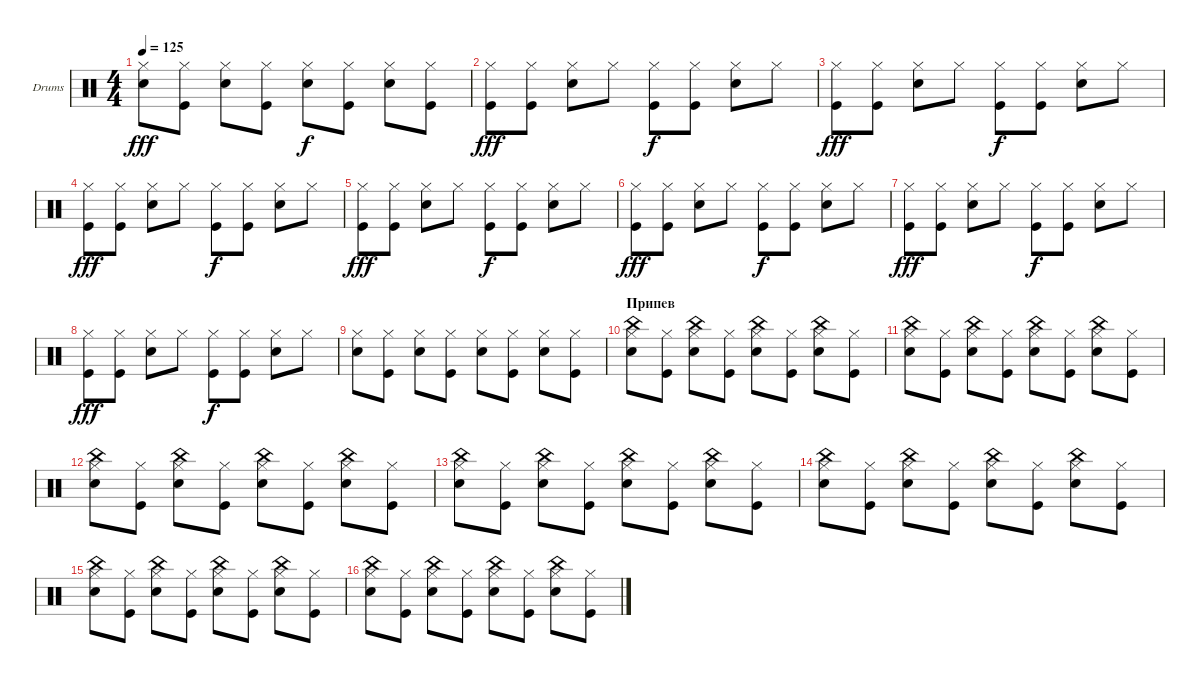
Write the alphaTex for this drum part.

\defaultSystemsLayout 4
\bracketExtendMode groupsimilarinstruments
\firstSystemTrackNameOrientation horizontal
\otherSystemsTrackNameOrientation horizontal
\track ("Drumkit" "Drums") {instrument percussion}
\staff {score}
\articulation defaults
\ts (4 4)
\tempo 125
\clef neutral
\ks c
("Hi-Hat (closed)" "Snare (hit) 2").8{dy fff} ("Hi-Hat (closed)" "Kick (hit)").8 ("Hi-Hat (closed)" "Snare (hit) 2").8 ("Hi-Hat (closed)" "Kick (hit)").8 ("Hi-Hat (closed)" "Snare (hit) 2").8{dy f} ("Hi-Hat (closed)" "Kick (hit)").8 ("Hi-Hat (closed)" "Snare (hit) 2").8 ("Hi-Hat (closed)" "Kick (hit)").8 |
("Hi-Hat (closed)" "Kick (hit)").8{dy fff} ("Hi-Hat (closed)" "Kick (hit)").8 ("Hi-Hat (closed)" "Snare (hit) 2").8 "Hi-Hat (closed)".8 ("Hi-Hat (closed)" "Kick (hit)").8{dy f} ("Hi-Hat (closed)" "Kick (hit)").8 ("Hi-Hat (closed)" "Snare (hit) 2").8 "Hi-Hat (closed)".8 |
("Hi-Hat (closed)" "Kick (hit)").8{dy fff} ("Hi-Hat (closed)" "Kick (hit)").8 ("Hi-Hat (closed)" "Snare (hit) 2").8 "Hi-Hat (closed)".8 ("Hi-Hat (closed)" "Kick (hit)").8{dy f} ("Hi-Hat (closed)" "Kick (hit)").8 ("Hi-Hat (closed)" "Snare (hit) 2").8 "Hi-Hat (closed)".8 |
("Hi-Hat (closed)" "Kick (hit)").8{dy fff} ("Hi-Hat (closed)" "Kick (hit)").8 ("Hi-Hat (closed)" "Snare (hit) 2").8 "Hi-Hat (closed)".8 ("Hi-Hat (closed)" "Kick (hit)").8{dy f} ("Hi-Hat (closed)" "Kick (hit)").8 ("Hi-Hat (closed)" "Snare (hit) 2").8 "Hi-Hat (closed)".8 |
("Hi-Hat (closed)" "Kick (hit)").8{dy fff} ("Hi-Hat (closed)" "Kick (hit)").8 ("Hi-Hat (closed)" "Snare (hit) 2").8 "Hi-Hat (closed)".8 ("Hi-Hat (closed)" "Kick (hit)").8{dy f} ("Hi-Hat (closed)" "Kick (hit)").8 ("Hi-Hat (closed)" "Snare (hit) 2").8 "Hi-Hat (closed)".8 |
("Hi-Hat (closed)" "Kick (hit)").8{dy fff} ("Hi-Hat (closed)" "Kick (hit)").8 ("Hi-Hat (closed)" "Snare (hit) 2").8 "Hi-Hat (closed)".8 ("Hi-Hat (closed)" "Kick (hit)").8{dy f} ("Hi-Hat (closed)" "Kick (hit)").8 ("Hi-Hat (closed)" "Snare (hit) 2").8 "Hi-Hat (closed)".8 |
("Hi-Hat (closed)" "Kick (hit)").8{dy fff} ("Hi-Hat (closed)" "Kick (hit)").8 ("Hi-Hat (closed)" "Snare (hit) 2").8 "Hi-Hat (closed)".8 ("Hi-Hat (closed)" "Kick (hit)").8{dy f} ("Hi-Hat (closed)" "Kick (hit)").8 ("Hi-Hat (closed)" "Snare (hit) 2").8 "Hi-Hat (closed)".8 |
("Hi-Hat (closed)" "Kick (hit)").8{dy fff} ("Hi-Hat (closed)" "Kick (hit)").8 ("Hi-Hat (closed)" "Snare (hit) 2").8 "Hi-Hat (closed)".8 ("Hi-Hat (closed)" "Kick (hit)").8{dy f} ("Hi-Hat (closed)" "Kick (hit)").8 ("Hi-Hat (closed)" "Snare (hit) 2").8 "Hi-Hat (closed)".8 |
("Snare (hit) 2" "Hi-Hat (closed)").8 ("Kick (hit)" "Hi-Hat (closed)").8 ("Snare (hit) 2" "Hi-Hat (closed)").8 ("Kick (hit)" "Hi-Hat (closed)").8 ("Snare (hit) 2" "Hi-Hat (closed)").8 ("Kick (hit)" "Hi-Hat (closed)").8 ("Snare (hit) 2" "Hi-Hat (closed)").8 ("Kick (hit)" "Hi-Hat (closed)").8 |
\section ("" "Припев")
("Snare (hit) 2" "Hi-Hat (closed)" "China (hit)").8 ("Kick (hit)" "Hi-Hat (closed)").8 ("Snare (hit) 2" "Hi-Hat (closed)" "China (hit)").8 ("Kick (hit)" "Hi-Hat (closed)").8 ("Snare (hit) 2" "Hi-Hat (closed)" "China (hit)").8 ("Kick (hit)" "Hi-Hat (closed)").8 ("Snare (hit) 2" "Hi-Hat (closed)" "China (hit)").8 ("Kick (hit)" "Hi-Hat (closed)").8 |
("Snare (hit) 2" "Hi-Hat (closed)" "China (hit)").8 ("Kick (hit)" "Hi-Hat (closed)").8 ("Snare (hit) 2" "Hi-Hat (closed)" "China (hit)").8 ("Kick (hit)" "Hi-Hat (closed)").8 ("Snare (hit) 2" "Hi-Hat (closed)" "China (hit)").8 ("Kick (hit)" "Hi-Hat (closed)").8 ("Snare (hit) 2" "Hi-Hat (closed)" "China (hit)").8 ("Kick (hit)" "Hi-Hat (closed)").8 |
("Snare (hit) 2" "Hi-Hat (closed)" "China (hit)").8 ("Kick (hit)" "Hi-Hat (closed)").8 ("Snare (hit) 2" "Hi-Hat (closed)" "China (hit)").8 ("Kick (hit)" "Hi-Hat (closed)").8 ("Snare (hit) 2" "Hi-Hat (closed)" "China (hit)").8 ("Kick (hit)" "Hi-Hat (closed)").8 ("Snare (hit) 2" "Hi-Hat (closed)" "China (hit)").8 ("Kick (hit)" "Hi-Hat (closed)").8 |
("Snare (hit) 2" "Hi-Hat (closed)" "China (hit)").8 ("Kick (hit)" "Hi-Hat (closed)").8 ("Snare (hit) 2" "Hi-Hat (closed)" "China (hit)").8 ("Kick (hit)" "Hi-Hat (closed)").8 ("Snare (hit) 2" "Hi-Hat (closed)" "China (hit)").8 ("Kick (hit)" "Hi-Hat (closed)").8 ("Snare (hit) 2" "Hi-Hat (closed)" "China (hit)").8 ("Kick (hit)" "Hi-Hat (closed)").8 |
("Snare (hit) 2" "Hi-Hat (closed)" "China (hit)").8 ("Kick (hit)" "Hi-Hat (closed)").8 ("Snare (hit) 2" "Hi-Hat (closed)" "China (hit)").8 ("Kick (hit)" "Hi-Hat (closed)").8 ("Snare (hit) 2" "Hi-Hat (closed)" "China (hit)").8 ("Kick (hit)" "Hi-Hat (closed)").8 ("Snare (hit) 2" "Hi-Hat (closed)" "China (hit)").8 ("Kick (hit)" "Hi-Hat (closed)").8 |
("Snare (hit) 2" "Hi-Hat (closed)" "China (hit)").8 ("Kick (hit)" "Hi-Hat (closed)").8 ("Snare (hit) 2" "Hi-Hat (closed)" "China (hit)").8 ("Kick (hit)" "Hi-Hat (closed)").8 ("Snare (hit) 2" "Hi-Hat (closed)" "China (hit)").8 ("Kick (hit)" "Hi-Hat (closed)").8 ("Snare (hit) 2" "Hi-Hat (closed)" "China (hit)").8 ("Kick (hit)" "Hi-Hat (closed)").8 |
("Snare (hit) 2" "Hi-Hat (closed)" "China (hit)").8 ("Kick (hit)" "Hi-Hat (closed)").8 ("Snare (hit) 2" "Hi-Hat (closed)" "China (hit)").8 ("Kick (hit)" "Hi-Hat (closed)").8 ("Snare (hit) 2" "Hi-Hat (closed)" "China (hit)").8 ("Kick (hit)" "Hi-Hat (closed)").8 ("Snare (hit) 2" "Hi-Hat (closed)" "China (hit)").8 ("Kick (hit)" "Hi-Hat (closed)").8
